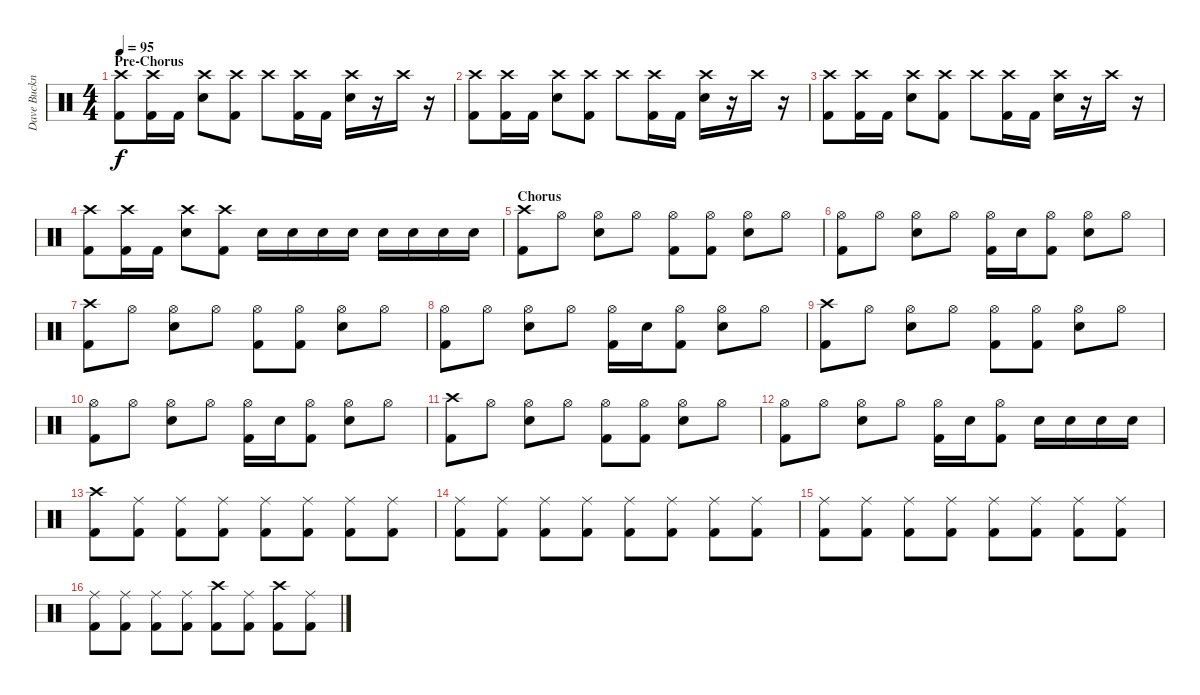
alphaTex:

\track ("Dave Buckner " "Dave Buckn") {instrument percussion}
\staff {score}
\articulation defaults
\ts (4 4)
\section ("" "Pre-Chorus")
\tempo 95
\clef neutral
\ks c
("Crash high (hit)" "Kick (hit) 2").8{dy f} ("Crash high (hit)" "Kick (hit) 2").16 "Kick (hit) 2".16 ("Crash high (hit)" "Snare (hit) 2").8 ("Crash high (hit)" "Kick (hit) 2").8 "Crash high (hit)".8 ("Crash high (hit)" "Kick (hit) 2").16 "Kick (hit) 2".16 ("Crash high (hit)" "Snare (hit) 2").16 r.16 "Crash high (hit)".16 r.16 |
("Crash high (hit)" "Kick (hit) 2").8 ("Crash high (hit)" "Kick (hit) 2").16 "Kick (hit) 2".16 ("Crash high (hit)" "Snare (hit) 2").8 ("Crash high (hit)" "Kick (hit) 2").8 "Crash high (hit)".8 ("Crash high (hit)" "Kick (hit) 2").16 "Kick (hit) 2".16 ("Crash high (hit)" "Snare (hit) 2").16 r.16 "Crash high (hit)".16 r.16 |
("Crash high (hit)" "Kick (hit) 2").8 ("Crash high (hit)" "Kick (hit) 2").16 "Kick (hit) 2".16 ("Crash high (hit)" "Snare (hit) 2").8 ("Crash high (hit)" "Kick (hit) 2").8 "Crash high (hit)".8 ("Crash high (hit)" "Kick (hit) 2").16 "Kick (hit) 2".16 ("Crash high (hit)" "Snare (hit) 2").16 r.16 "Crash high (hit)".16 r.16 |
("Crash high (hit)" "Kick (hit) 2").8 ("Crash high (hit)" "Kick (hit) 2").16 "Kick (hit) 2".16 ("Crash high (hit)" "Snare (hit) 2").8 ("Crash high (hit)" "Kick (hit) 2").8 "Snare (hit) 2".16 "Snare (hit) 2".16 "Snare (hit) 2".16 "Snare (hit) 2".16 "Snare (hit) 2".16 "Snare (hit) 2".16 "Snare (hit) 2".16 "Snare (hit) 2".16 |
\section ("" "Chorus")
("Crash high (hit)" "Kick (hit) 2").8 "Hi-Hat (open)".8 ("Hi-Hat (open)" "Snare (hit) 2").8 "Hi-Hat (open)".8 ("Hi-Hat (open)" "Kick (hit) 2").8 ("Hi-Hat (open)" "Kick (hit) 2").8 ("Hi-Hat (open)" "Snare (hit) 2").8 "Hi-Hat (open)".8 |
("Hi-Hat (open)" "Kick (hit) 2").8 "Hi-Hat (open)".8 ("Hi-Hat (open)" "Snare (hit) 2").8 "Hi-Hat (open)".8 ("Hi-Hat (open)" "Kick (hit) 2").16 "Snare (hit) 2".16 ("Hi-Hat (open)" "Kick (hit) 2").8 ("Hi-Hat (open)" "Snare (hit) 2").8 "Hi-Hat (open)".8 |
("Crash high (hit)" "Kick (hit) 2").8 "Hi-Hat (open)".8 ("Hi-Hat (open)" "Snare (hit) 2").8 "Hi-Hat (open)".8 ("Hi-Hat (open)" "Kick (hit) 2").8 ("Hi-Hat (open)" "Kick (hit) 2").8 ("Hi-Hat (open)" "Snare (hit) 2").8 "Hi-Hat (open)".8 |
("Hi-Hat (open)" "Kick (hit) 2").8 "Hi-Hat (open)".8 ("Hi-Hat (open)" "Snare (hit) 2").8 "Hi-Hat (open)".8 ("Hi-Hat (open)" "Kick (hit) 2").16 "Snare (hit) 2".16 ("Hi-Hat (open)" "Kick (hit) 2").8 ("Hi-Hat (open)" "Snare (hit) 2").8 "Hi-Hat (open)".8 |
("Crash high (hit)" "Kick (hit) 2").8 "Hi-Hat (open)".8 ("Hi-Hat (open)" "Snare (hit) 2").8 "Hi-Hat (open)".8 ("Hi-Hat (open)" "Kick (hit) 2").8 ("Hi-Hat (open)" "Kick (hit) 2").8 ("Hi-Hat (open)" "Snare (hit) 2").8 "Hi-Hat (open)".8 |
("Hi-Hat (open)" "Kick (hit) 2").8 "Hi-Hat (open)".8 ("Hi-Hat (open)" "Snare (hit) 2").8 "Hi-Hat (open)".8 ("Hi-Hat (open)" "Kick (hit) 2").16 "Snare (hit) 2".16 ("Hi-Hat (open)" "Kick (hit) 2").8 ("Hi-Hat (open)" "Snare (hit) 2").8 "Hi-Hat (open)".8 |
("Crash high (hit)" "Kick (hit) 2").8 "Hi-Hat (open)".8 ("Hi-Hat (open)" "Snare (hit) 2").8 "Hi-Hat (open)".8 ("Hi-Hat (open)" "Kick (hit) 2").8 ("Hi-Hat (open)" "Kick (hit) 2").8 ("Hi-Hat (open)" "Snare (hit) 2").8 "Hi-Hat (open)".8 |
("Hi-Hat (open)" "Kick (hit) 2").8 "Hi-Hat (open)".8 ("Hi-Hat (open)" "Snare (hit) 2").8 "Hi-Hat (open)".8 ("Hi-Hat (open)" "Kick (hit) 2").16 "Snare (hit) 2".16 ("Hi-Hat (open)" "Kick (hit) 2").8 "Snare (hit) 2".16 "Snare (hit) 2".16 "Snare (hit) 2".16 "Snare (hit) 2".16 |
("Crash high (hit)" "Kick (hit) 2").8 ("Ride (middle)" "Kick (hit) 2").8 ("Ride (middle)" "Kick (hit) 2").8 ("Ride (middle)" "Kick (hit) 2").8 ("Ride (middle)" "Kick (hit) 2").8 ("Ride (middle)" "Kick (hit) 2").8 ("Ride (middle)" "Kick (hit) 2").8 ("Ride (middle)" "Kick (hit) 2").8 |
("Ride (middle)" "Kick (hit) 2").8 ("Ride (middle)" "Kick (hit) 2").8 ("Ride (middle)" "Kick (hit) 2").8 ("Ride (middle)" "Kick (hit) 2").8 ("Ride (middle)" "Kick (hit) 2").8 ("Ride (middle)" "Kick (hit) 2").8 ("Ride (middle)" "Kick (hit) 2").8 ("Ride (middle)" "Kick (hit) 2").8 |
("Ride (middle)" "Kick (hit) 2").8 ("Ride (middle)" "Kick (hit) 2").8 ("Ride (middle)" "Kick (hit) 2").8 ("Ride (middle)" "Kick (hit) 2").8 ("Ride (middle)" "Kick (hit) 2").8 ("Ride (middle)" "Kick (hit) 2").8 ("Ride (middle)" "Kick (hit) 2").8 ("Ride (middle)" "Kick (hit) 2").8 |
("Ride (middle)" "Kick (hit) 2").8 ("Ride (middle)" "Kick (hit) 2").8 ("Ride (middle)" "Kick (hit) 2").8 ("Ride (middle)" "Kick (hit) 2").8 ("Crash high (hit)" "Kick (hit) 2").8 ("Ride (middle)" "Kick (hit) 2").8 ("Crash high (hit)" "Kick (hit) 2").8 ("Ride (middle)" "Kick (hit) 2").8
